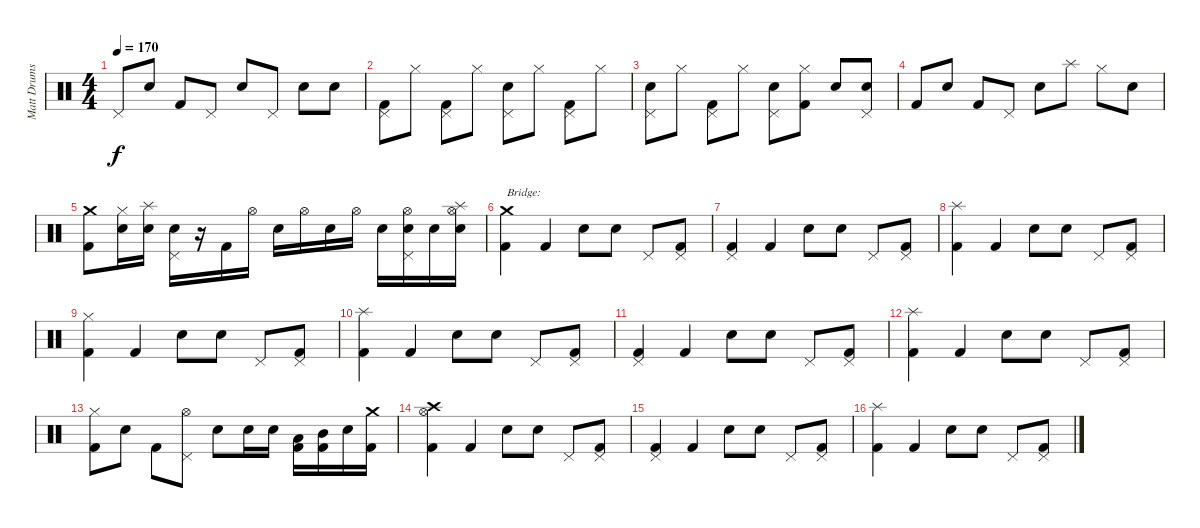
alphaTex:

\track ("Matt Drums" "Matt Drums") {instrument percussion}
\staff {score}
\articulation defaults
\ts (4 4)
\tempo 170
\clef neutral
\ks c "Pedal Hi-Hat (hit)".8{dy f} "Electric Snare (hit)".8 "Kick (hit) 2".8 "Pedal Hi-Hat (hit)".8 "Electric Snare (hit)".8 "Pedal Hi-Hat (hit)".8 "Electric Snare (hit)".8 "Electric Snare (hit)".8
|
("Pedal Hi-Hat (hit)" "Kick (hit) 2").8 "Hi-Hat (closed)".8 ("Pedal Hi-Hat (hit)" "Kick (hit) 2").8 "Hi-Hat (closed)".8 ("Pedal Hi-Hat (hit)" "Electric Snare (hit)").8 "Hi-Hat (closed)".8 ("Pedal Hi-Hat (hit)" "Kick (hit) 2").8 "Hi-Hat (closed)".8 |
("Pedal Hi-Hat (hit)" "Electric Snare (hit)").8 "Hi-Hat (closed)".8 ("Pedal Hi-Hat (hit)" "Kick (hit) 2").8 "Hi-Hat (closed)".8 ("Pedal Hi-Hat (hit)" "Electric Snare (hit)").8 ("Hi-Hat (closed)" "Kick (hit) 2").8 "Electric Snare (hit)".8 ("Pedal Hi-Hat (hit)" "Electric Snare (hit)").8 |
"Kick (hit) 2".8 "Electric Snare (hit)".8 "Kick (hit) 2".8 "Pedal Hi-Hat (hit)".8 "Electric Snare (hit)".8 "Splash (hit)".8 "Hi-Hat (closed)".8 "Electric Snare (hit)".8 |
("Crash medium (hit)" "Kick (hit) 2").8 ("Hi-Hat (closed)" "Electric Snare (hit)").16 ("Splash (hit)" "Electric Snare (hit)").16 ("Pedal Hi-Hat (hit)" "Electric Snare (hit)").16 r.16 "Kick (hit) 2".16 "Hi-Hat (open)".16 "Electric Snare (hit)".16 "Hi-Hat (open)".16 "Electric Snare (hit)".16 "Hi-Hat (open)".16 "Electric Snare (hit)".16 ("Pedal Hi-Hat (hit)" "Electric Snare (hit)" "Hi-Hat (open)").16 "Electric Snare (hit)".16 ("Splash (hit)" "Electric Snare (hit)" "Hi-Hat (open)").16 |
("Crash medium (hit)" "Kick (hit) 2").4{txt "Bridge:"} "Kick (hit) 2".4 "Electric Snare (hit)".8 "Electric Snare (hit)".8 "Pedal Hi-Hat (hit)".8 ("Pedal Hi-Hat (hit)" "Kick (hit) 2").8 |
("Pedal Hi-Hat (hit)" "Kick (hit) 2").4 "Kick (hit) 2".4 "Electric Snare (hit)".8 "Electric Snare (hit)".8 "Pedal Hi-Hat (hit)".8 ("Pedal Hi-Hat (hit)" "Kick (hit) 2").8 |
("Splash (hit)" "Kick (hit) 2").4 "Kick (hit) 2".4 "Electric Snare (hit)".8 "Electric Snare (hit)".8 "Pedal Hi-Hat (hit)".8 ("Pedal Hi-Hat (hit)" "Kick (hit) 2").8 |
("Hi-Hat (closed)" "Kick (hit) 2").4 "Kick (hit) 2".4 "Electric Snare (hit)".8 "Electric Snare (hit)".8 "Pedal Hi-Hat (hit)".8 ("Pedal Hi-Hat (hit)" "Kick (hit) 2").8 |
("Splash (hit)" "Kick (hit) 2").4 "Kick (hit) 2".4 "Electric Snare (hit)".8 "Electric Snare (hit)".8 "Pedal Hi-Hat (hit)".8 ("Pedal Hi-Hat (hit)" "Kick (hit) 2").8 |
("Pedal Hi-Hat (hit)" "Kick (hit) 2").4 "Kick (hit) 2".4 "Electric Snare (hit)".8 "Electric Snare (hit)".8 "Pedal Hi-Hat (hit)".8 ("Pedal Hi-Hat (hit)" "Kick (hit) 2").8 |
("Splash (hit)" "Kick (hit) 2").4 "Kick (hit) 2".4 "Electric Snare (hit)".8 "Electric Snare (hit)".8 "Pedal Hi-Hat (hit)".8 ("Pedal Hi-Hat (hit)" "Kick (hit) 2").8 |
("Hi-Hat (closed)" "Kick (hit) 2").8 "Electric Snare (hit)".8 "Kick (hit) 2".8 ("Pedal Hi-Hat (hit)" "Hi-Hat (open)").8 "Electric Snare (hit)".8 "Electric Snare (hit)".16 "Electric Snare (hit)".16 ("Low Tom (hit)" "Kick (hit) 2").16 ("Mid Tom (hit)" "Kick (hit) 2").16 "Electric Snare (hit)".16 ("Crash medium (hit)" "Kick (hit) 2").16 |
("Crash high (hit)" "Kick (hit) 2" "Hi-Hat (open)").4 "Kick (hit) 2".4 "Electric Snare (hit)".8 "Electric Snare (hit)".8 "Pedal Hi-Hat (hit)".8 ("Pedal Hi-Hat (hit)" "Kick (hit) 2").8 |
("Pedal Hi-Hat (hit)" "Kick (hit) 2").4 "Kick (hit) 2".4 "Electric Snare (hit)".8 "Electric Snare (hit)".8 "Pedal Hi-Hat (hit)".8 ("Pedal Hi-Hat (hit)" "Kick (hit) 2").8 |
("Splash (hit)" "Kick (hit) 2").4 "Kick (hit) 2".4 "Electric Snare (hit)".8 "Electric Snare (hit)".8 "Pedal Hi-Hat (hit)".8 ("Pedal Hi-Hat (hit)" "Kick (hit) 2").8
